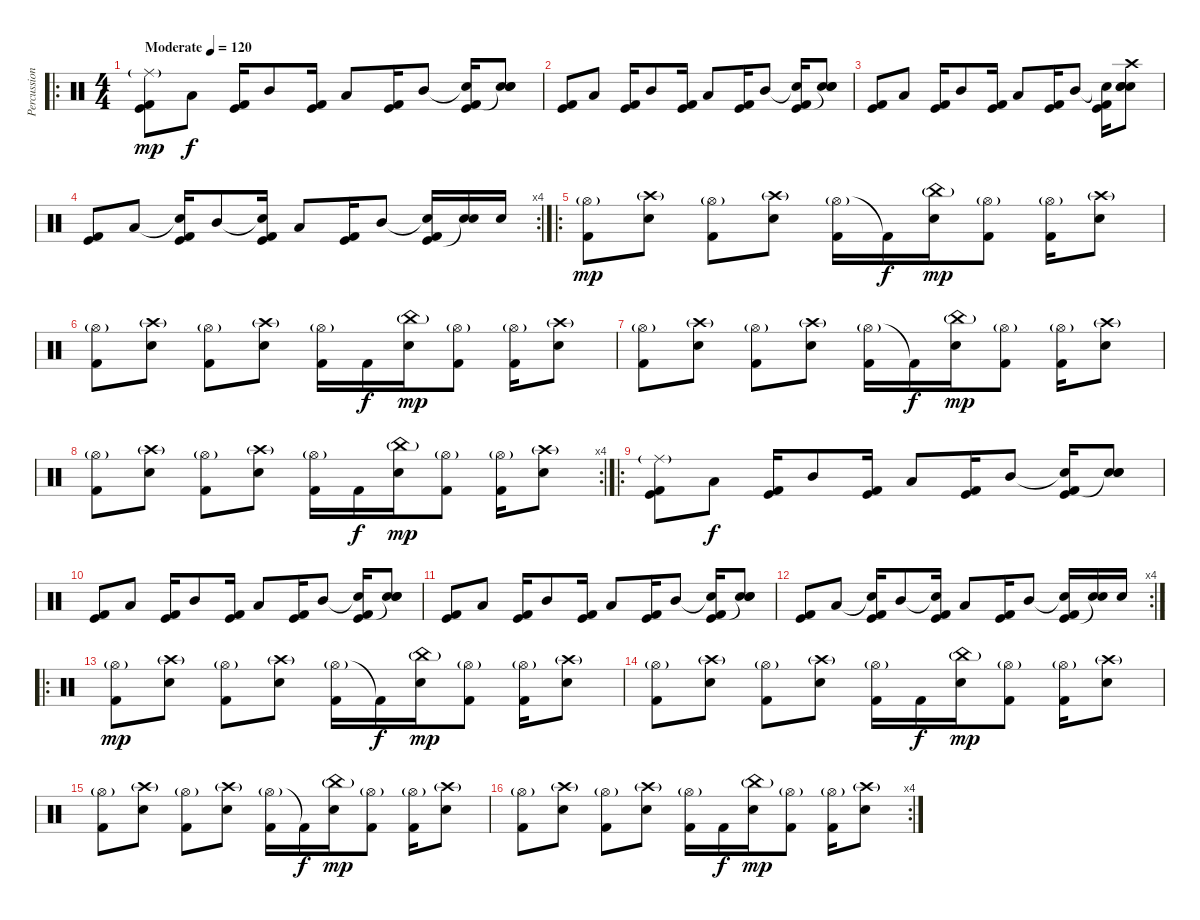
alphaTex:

\track ("Percussion" "Percussion") {instrument percussion}
\staff {score}
\articulation defaults
\ro
\ts (4 4)
\tempo (120 "Moderate")
\clef neutral
\ks c
("Ride (middle)"{g} "Kick (hit)" "Kick (hit) 2").8{dy mp} "Low Tom (hit)".8{dy f} ("Kick (hit)" "Kick (hit) 2").16 "Mid Tom (hit)".8 ("Kick (hit)" "Kick (hit) 2").16 "Low Tom (hit)".8 ("Kick (hit)" "Kick (hit) 2").16 "Mid Tom (hit)".8 ("Snare (hit)"{t} "Kick (hit)" "Kick (hit) 2").16 ("Snare (hit) 2" "Electric Snare (hit)" "Snare (hit)"{t}).8 |
("Kick (hit)" "Kick (hit) 2").8 "Low Tom (hit)".8 ("Kick (hit)" "Kick (hit) 2").16 "Mid Tom (hit)".8 ("Kick (hit)" "Kick (hit) 2").16 "Low Tom (hit)".8 ("Kick (hit)" "Kick (hit) 2").16 "Mid Tom (hit)".8 ("Snare (hit)"{t} "Kick (hit)" "Kick (hit) 2").16 ("Snare (hit) 2" "Electric Snare (hit)" "Snare (hit)"{t}).8 |
("Kick (hit)" "Kick (hit) 2").8 "Low Tom (hit)".8 ("Kick (hit)" "Kick (hit) 2").16 "Mid Tom (hit)".8 ("Kick (hit)" "Kick (hit) 2").16 "Low Tom (hit)".8 ("Kick (hit)" "Kick (hit) 2").16 "Mid Tom (hit)".8 ("Snare (hit)"{t} "Kick (hit)" "Kick (hit) 2").16 ("Crash high (hit)" "Snare (hit) 2" "Electric Snare (hit)" "Snare (hit)").8 |
\rc 4
("Kick (hit)" "Kick (hit) 2").8 "Low Tom (hit)".8 ("Snare (hit)"{t} "Kick (hit)" "Kick (hit) 2").16 "Mid Tom (hit)".8 ("Snare (hit)"{t} "Kick (hit)" "Kick (hit) 2").16 "Low Tom (hit)".8 ("Kick (hit)" "Kick (hit) 2").16 "Mid Tom (hit)".8 ("Snare (hit)"{t} "Kick (hit)" "Kick (hit) 2").16 ("Electric Snare (hit)" "Snare (hit)"{t}).16 "Electric Snare (hit)".16 |
\ro
("Hi-Hat (open)"{g} "Kick (hit) 2").8{dy mp} ("Crash high (hit)"{g} "Electric Snare (hit)").8 ("Hi-Hat (open)"{g} "Kick (hit) 2").8 ("Crash high (hit)"{g} "Electric Snare (hit)").8 ("Hi-Hat (open)"{g} "Kick (hit) 2").16 "Kick (hit) 2"{t}.16{dy f} ("China (hit)"{g} "Electric Snare (hit)").16{dy mp} ("Hi-Hat (open)"{g} "Kick (hit) 2").8 ("Hi-Hat (open)"{g} "Kick (hit) 2").16 ("Crash high (hit)"{g} "Electric Snare (hit)").8 |
("Hi-Hat (open)"{g} "Kick (hit) 2").8 ("Crash high (hit)"{g} "Electric Snare (hit)").8 ("Hi-Hat (open)"{g} "Kick (hit) 2").8 ("Crash high (hit)"{g} "Electric Snare (hit)").8 ("Hi-Hat (open)"{g} "Kick (hit) 2").16 "Kick (hit) 2".16{dy f} ("China (hit)"{g} "Electric Snare (hit)").16{dy mp} ("Hi-Hat (open)"{g} "Kick (hit) 2").8 ("Hi-Hat (open)"{g} "Kick (hit) 2").16 ("Crash high (hit)"{g} "Electric Snare (hit)").8 |
("Hi-Hat (open)"{g} "Kick (hit) 2").8 ("Crash high (hit)"{g} "Electric Snare (hit)").8 ("Hi-Hat (open)"{g} "Kick (hit) 2").8 ("Crash high (hit)"{g} "Electric Snare (hit)").8 ("Hi-Hat (open)"{g} "Kick (hit) 2").16 "Kick (hit) 2"{t}.16{dy f} ("China (hit)"{g} "Electric Snare (hit)").16{dy mp} ("Hi-Hat (open)"{g} "Kick (hit) 2").8 ("Hi-Hat (open)"{g} "Kick (hit) 2").16 ("Crash high (hit)"{g} "Electric Snare (hit)").8 |
\rc 4
("Hi-Hat (open)"{g} "Kick (hit) 2").8 ("Crash high (hit)"{g} "Electric Snare (hit)").8 ("Hi-Hat (open)"{g} "Kick (hit) 2").8 ("Crash high (hit)"{g} "Electric Snare (hit)").8 ("Hi-Hat (open)"{g} "Kick (hit) 2").16 "Kick (hit) 2".16{dy f} ("China (hit)"{g} "Electric Snare (hit)").16{dy mp} ("Hi-Hat (open)"{g} "Kick (hit) 2").8 ("Hi-Hat (open)"{g} "Kick (hit) 2").16 ("Crash high (hit)"{g} "Electric Snare (hit)").8 |
\ro
("Ride (middle)"{g} "Kick (hit)" "Kick (hit) 2").8 "Low Tom (hit)".8{dy f} ("Kick (hit)" "Kick (hit) 2").16 "Mid Tom (hit)".8 ("Kick (hit)" "Kick (hit) 2").16 "Low Tom (hit)".8 ("Kick (hit)" "Kick (hit) 2").16 "Mid Tom (hit)".8 ("Snare (hit)"{t} "Kick (hit)" "Kick (hit) 2").16 ("Snare (hit) 2" "Electric Snare (hit)" "Snare (hit)"{t}).8 |
("Kick (hit)" "Kick (hit) 2").8 "Low Tom (hit)".8 ("Kick (hit)" "Kick (hit) 2").16 "Mid Tom (hit)".8 ("Kick (hit)" "Kick (hit) 2").16 "Low Tom (hit)".8 ("Kick (hit)" "Kick (hit) 2").16 "Mid Tom (hit)".8 ("Snare (hit)"{t} "Kick (hit)" "Kick (hit) 2").16 ("Snare (hit) 2" "Electric Snare (hit)" "Snare (hit)"{t}).8 |
("Kick (hit)" "Kick (hit) 2").8 "Low Tom (hit)".8 ("Kick (hit)" "Kick (hit) 2").16 "Mid Tom (hit)".8 ("Kick (hit)" "Kick (hit) 2").16 "Low Tom (hit)".8 ("Kick (hit)" "Kick (hit) 2").16 "Mid Tom (hit)".8 ("Snare (hit)"{t} "Kick (hit)" "Kick (hit) 2").16 ("Snare (hit) 2" "Electric Snare (hit)" "Snare (hit)"{t}).8 |
\rc 4
("Kick (hit)" "Kick (hit) 2").8 "Low Tom (hit)".8 ("Snare (hit)"{t} "Kick (hit)" "Kick (hit) 2").16 "Mid Tom (hit)".8 ("Snare (hit)"{t} "Kick (hit)" "Kick (hit) 2").16 "Low Tom (hit)".8 ("Kick (hit)" "Kick (hit) 2").16 "Mid Tom (hit)".8 ("Snare (hit)"{t} "Kick (hit)" "Kick (hit) 2").16 ("Electric Snare (hit)" "Snare (hit)"{t}).16 "Electric Snare (hit)".16 |
\ro
("Hi-Hat (open)"{g} "Kick (hit) 2").8{dy mp} ("Crash high (hit)"{g} "Electric Snare (hit)").8 ("Hi-Hat (open)"{g} "Kick (hit) 2").8 ("Crash high (hit)"{g} "Electric Snare (hit)").8 ("Hi-Hat (open)"{g} "Kick (hit) 2").16 "Kick (hit) 2"{t}.16{dy f} ("China (hit)"{g} "Electric Snare (hit)").16{dy mp} ("Hi-Hat (open)"{g} "Kick (hit) 2").8 ("Hi-Hat (open)"{g} "Kick (hit) 2").16 ("Crash high (hit)"{g} "Electric Snare (hit)").8 |
("Hi-Hat (open)"{g} "Kick (hit) 2").8 ("Crash high (hit)"{g} "Electric Snare (hit)").8 ("Hi-Hat (open)"{g} "Kick (hit) 2").8 ("Crash high (hit)"{g} "Electric Snare (hit)").8 ("Hi-Hat (open)"{g} "Kick (hit) 2").16 "Kick (hit) 2".16{dy f} ("China (hit)"{g} "Electric Snare (hit)").16{dy mp} ("Hi-Hat (open)"{g} "Kick (hit) 2").8 ("Hi-Hat (open)"{g} "Kick (hit) 2").16 ("Crash high (hit)"{g} "Electric Snare (hit)").8 |
("Hi-Hat (open)"{g} "Kick (hit) 2").8 ("Crash high (hit)"{g} "Electric Snare (hit)").8 ("Hi-Hat (open)"{g} "Kick (hit) 2").8 ("Crash high (hit)"{g} "Electric Snare (hit)").8 ("Hi-Hat (open)"{g} "Kick (hit) 2").16 "Kick (hit) 2"{t}.16{dy f} ("China (hit)"{g} "Electric Snare (hit)").16{dy mp} ("Hi-Hat (open)"{g} "Kick (hit) 2").8 ("Hi-Hat (open)"{g} "Kick (hit) 2").16 ("Crash high (hit)"{g} "Electric Snare (hit)").8 |
\rc 4
("Hi-Hat (open)"{g} "Kick (hit) 2").8 ("Crash high (hit)"{g} "Electric Snare (hit)").8 ("Hi-Hat (open)"{g} "Kick (hit) 2").8 ("Crash high (hit)"{g} "Electric Snare (hit)").8 ("Hi-Hat (open)"{g} "Kick (hit) 2").16 "Kick (hit) 2".16{dy f} ("China (hit)"{g} "Electric Snare (hit)").16{dy mp} ("Hi-Hat (open)"{g} "Kick (hit) 2").8 ("Hi-Hat (open)"{g} "Kick (hit) 2").16 ("Crash high (hit)"{g} "Electric Snare (hit)").8
